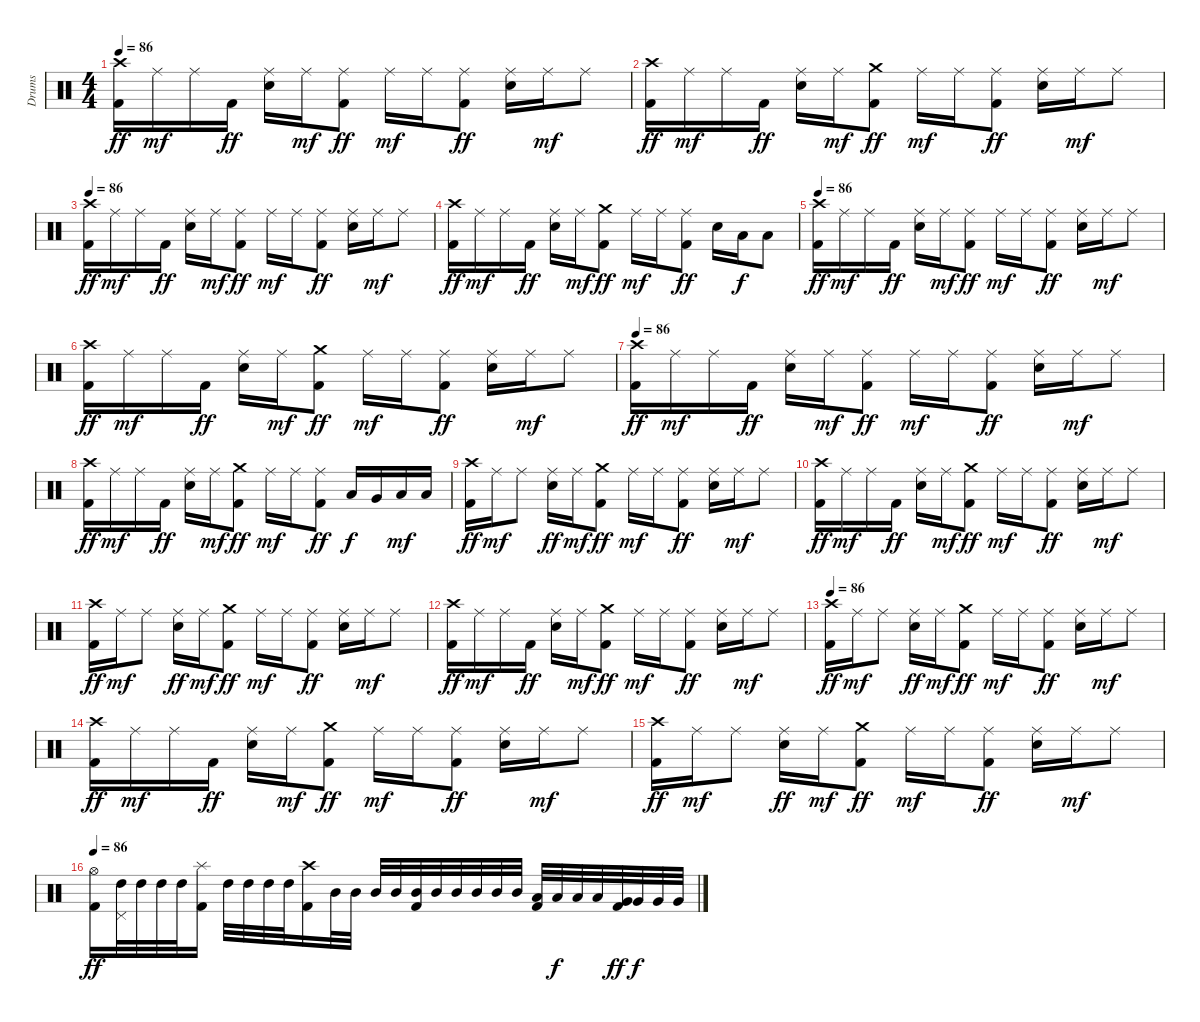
\track ("Drums" "Drums") {instrument percussion}
\staff {score}
\articulation defaults
\ts (4 4)
\tempo 86
\clef neutral
\ks c
("Crash high (hit)" "Kick (hit) 2").16{dy ff} "Ride (middle)".16{dy mf} "Ride (middle)".16 "Kick (hit) 2".16{dy ff} ("Ride (middle)" "Electric Snare (hit)").16 "Ride (middle)".16{dy mf} ("Ride (middle)" "Kick (hit) 2").8{dy ff} "Ride (middle)".16{dy mf} "Ride (middle)".16 ("Ride (middle)" "Kick (hit) 2").8{dy ff} ("Ride (middle)" "Electric Snare (hit)").16 "Ride (middle)".16{dy mf} "Ride (middle)".8 |
("Crash high (hit)" "Kick (hit) 2").16{dy ff} "Ride (middle)".16{dy mf} "Ride (middle)".16 "Kick (hit) 2".16{dy ff} ("Ride (middle)" "Electric Snare (hit)").16 "Ride (middle)".16{dy mf} ("Crash medium (hit)" "Kick (hit) 2").8{dy ff} "Ride (middle)".16{dy mf} "Ride (middle)".16 ("Ride (middle)" "Kick (hit) 2").8{dy ff} ("Ride (middle)" "Electric Snare (hit)").16 "Ride (middle)".16{dy mf} "Ride (middle)".8 |
\tempo 86
("Crash high (hit)" "Kick (hit) 2").16{dy ff} "Ride (middle)".16{dy mf} "Ride (middle)".16 "Kick (hit) 2".16{dy ff} ("Ride (middle)" "Electric Snare (hit)").16 "Ride (middle)".16{dy mf} ("Ride (middle)" "Kick (hit) 2").8{dy ff} "Ride (middle)".16{dy mf} "Ride (middle)".16 ("Ride (middle)" "Kick (hit) 2").8{dy ff} ("Ride (middle)" "Electric Snare (hit)").16 "Ride (middle)".16{dy mf} "Ride (middle)".8 |
("Crash high (hit)" "Kick (hit) 2").16{dy ff} "Ride (middle)".16{dy mf} "Ride (middle)".16 "Kick (hit) 2".16{dy ff} ("Ride (middle)" "Electric Snare (hit)").16 "Ride (middle)".16{dy mf} ("Crash medium (hit)" "Kick (hit) 2").8{dy ff} "Ride (middle)".16{dy mf} "Ride (middle)".16 ("Ride (middle)" "Kick (hit) 2").8{dy ff} "Electric Snare (hit)".16 "Low Tom (hit)".16{dy f} "Low Tom (hit)".8 |
\tempo 86
("Crash high (hit)" "Kick (hit) 2").16{dy ff} "Ride (middle)".16{dy mf} "Ride (middle)".16 "Kick (hit) 2".16{dy ff} ("Ride (middle)" "Electric Snare (hit)").16 "Ride (middle)".16{dy mf} ("Ride (middle)" "Kick (hit) 2").8{dy ff} "Ride (middle)".16{dy mf} "Ride (middle)".16 ("Ride (middle)" "Kick (hit) 2").8{dy ff} ("Ride (middle)" "Electric Snare (hit)").16 "Ride (middle)".16{dy mf} "Ride (middle)".8 |
("Crash high (hit)" "Kick (hit) 2").16{dy ff} "Ride (middle)".16{dy mf} "Ride (middle)".16 "Kick (hit) 2".16{dy ff} ("Ride (middle)" "Electric Snare (hit)").16 "Ride (middle)".16{dy mf} ("Crash medium (hit)" "Kick (hit) 2").8{dy ff} "Ride (middle)".16{dy mf} "Ride (middle)".16 ("Ride (middle)" "Kick (hit) 2").8{dy ff} ("Ride (middle)" "Electric Snare (hit)").16 "Ride (middle)".16{dy mf} "Ride (middle)".8 |
\tempo 86
("Crash high (hit)" "Kick (hit) 2").16{dy ff} "Ride (middle)".16{dy mf} "Ride (middle)".16 "Kick (hit) 2".16{dy ff} ("Ride (middle)" "Electric Snare (hit)").16 "Ride (middle)".16{dy mf} ("Ride (middle)" "Kick (hit) 2").8{dy ff} "Ride (middle)".16{dy mf} "Ride (middle)".16 ("Ride (middle)" "Kick (hit) 2").8{dy ff} ("Ride (middle)" "Electric Snare (hit)").16 "Ride (middle)".16{dy mf} "Ride (middle)".8 |
("Crash high (hit)" "Kick (hit) 2").16{dy ff} "Ride (middle)".16{dy mf} "Ride (middle)".16 "Kick (hit) 2".16{dy ff} ("Ride (middle)" "Electric Snare (hit)").16 "Ride (middle)".16{dy mf} ("Crash medium (hit)" "Kick (hit) 2").8{dy ff} "Ride (middle)".16{dy mf} "Ride (middle)".16 ("Ride (middle)" "Kick (hit) 2").8{dy ff} "Low Tom (hit)".16{dy f} "Very Low Tom (hit)".16 "Low Floor Tom (hit)".16{dy mf} "Low Floor Tom (hit)".16 |
("Crash high (hit)" "Kick (hit) 2").16{dy ff} "Ride (middle)".16{dy mf} "Ride (middle)".8 ("Ride (middle)" "Electric Snare (hit)").16{dy ff} "Ride (middle)".16{dy mf} ("Crash medium (hit)" "Kick (hit) 2").8{dy ff} "Ride (middle)".16{dy mf} "Ride (middle)".16 ("Ride (middle)" "Kick (hit) 2").8{dy ff} ("Ride (middle)" "Electric Snare (hit)").16 "Ride (middle)".16{dy mf} "Ride (middle)".8 |
("Crash high (hit)" "Kick (hit) 2").16{dy ff} "Ride (middle)".16{dy mf} "Ride (middle)".16 "Kick (hit) 2".16{dy ff} ("Ride (middle)" "Electric Snare (hit)").16 "Ride (middle)".16{dy mf} ("Crash medium (hit)" "Kick (hit) 2").8{dy ff} "Ride (middle)".16{dy mf} "Ride (middle)".16 ("Ride (middle)" "Kick (hit) 2").8{dy ff} ("Ride (middle)" "Electric Snare (hit)").16 "Ride (middle)".16{dy mf} "Ride (middle)".8 |
("Crash high (hit)" "Kick (hit) 2").16{dy ff} "Ride (middle)".16{dy mf} "Ride (middle)".8 ("Ride (middle)" "Electric Snare (hit)").16{dy ff} "Ride (middle)".16{dy mf} ("Crash medium (hit)" "Kick (hit) 2").8{dy ff} "Ride (middle)".16{dy mf} "Ride (middle)".16 ("Ride (middle)" "Kick (hit) 2").8{dy ff} ("Ride (middle)" "Electric Snare (hit)").16 "Ride (middle)".16{dy mf} "Ride (middle)".8 |
("Crash high (hit)" "Kick (hit) 2").16{dy ff} "Ride (middle)".16{dy mf} "Ride (middle)".16 "Kick (hit) 2".16{dy ff} ("Ride (middle)" "Electric Snare (hit)").16 "Ride (middle)".16{dy mf} ("Crash medium (hit)" "Kick (hit) 2").8{dy ff} "Ride (middle)".16{dy mf} "Ride (middle)".16 ("Ride (middle)" "Kick (hit) 2").8{dy ff} ("Ride (middle)" "Electric Snare (hit)").16 "Ride (middle)".16{dy mf} "Ride (middle)".8 |
\tempo 86
("Crash high (hit)" "Kick (hit) 2").16{dy ff} "Ride (middle)".16{dy mf} "Ride (middle)".8 ("Ride (middle)" "Electric Snare (hit)").16{dy ff} "Ride (middle)".16{dy mf} ("Crash medium (hit)" "Kick (hit) 2").8{dy ff} "Ride (middle)".16{dy mf} "Ride (middle)".16 ("Ride (middle)" "Kick (hit) 2").8{dy ff} ("Ride (middle)" "Electric Snare (hit)").16 "Ride (middle)".16{dy mf} "Ride (middle)".8 |
("Crash high (hit)" "Kick (hit) 2").16{dy ff} "Ride (middle)".16{dy mf} "Ride (middle)".16 "Kick (hit) 2".16{dy ff} ("Ride (middle)" "Electric Snare (hit)").16 "Ride (middle)".16{dy mf} ("Crash medium (hit)" "Kick (hit) 2").8{dy ff} "Ride (middle)".16{dy mf} "Ride (middle)".16 ("Ride (middle)" "Kick (hit) 2").8{dy ff} ("Ride (middle)" "Electric Snare (hit)").16 "Ride (middle)".16{dy mf} "Ride (middle)".8 |
("Crash high (hit)" "Kick (hit) 2").16{dy ff} "Ride (middle)".16{dy mf} "Ride (middle)".8 ("Ride (middle)" "Electric Snare (hit)").16{dy ff} "Ride (middle)".16{dy mf} ("Crash medium (hit)" "Kick (hit) 2").8{dy ff} "Ride (middle)".16{dy mf} "Ride (middle)".16 ("Ride (middle)" "Kick (hit) 2").8{dy ff} ("Ride (middle)" "Electric Snare (hit)").16 "Ride (middle)".16{dy mf} "Ride (middle)".8 |
\tempo 86
("Hi-Hat (open)" "Kick (hit) 2").16{dy ff} ("Pedal Hi-Hat (hit)" "High Tom (hit)").32 "High Tom (hit)".32 "High Tom (hit)".32 "High Tom (hit)".32 ("Splash (hit)" "Kick (hit) 2").16 "High Tom (hit)".32 "High Tom (hit)".32 "High Tom (hit)".32 "High Tom (hit)".32 ("Crash high (hit)" "Kick (hit) 2").16 "Mid Tom (hit)".32 "Mid Tom (hit)".32 "Mid Tom (hit)".32 "Mid Tom (hit)".32 ("Mid Tom (hit)" "Kick (hit) 2").32 "Mid Tom (hit)".32 "Mid Tom (hit)".32 "Mid Tom (hit)".32 "Mid Tom (hit)".32 "Mid Tom (hit)".32 ("Low Tom (hit)" "Kick (hit) 2").32 "Low Tom (hit)".32{dy f} "Low Tom (hit)".32 "Low Tom (hit)".32 ("Very Low Tom (hit)" "Kick (hit) 2").32{dy ff} "Very Low Tom (hit)".32{dy f} "Very Low Tom (hit)".32 "Very Low Tom (hit)".32
